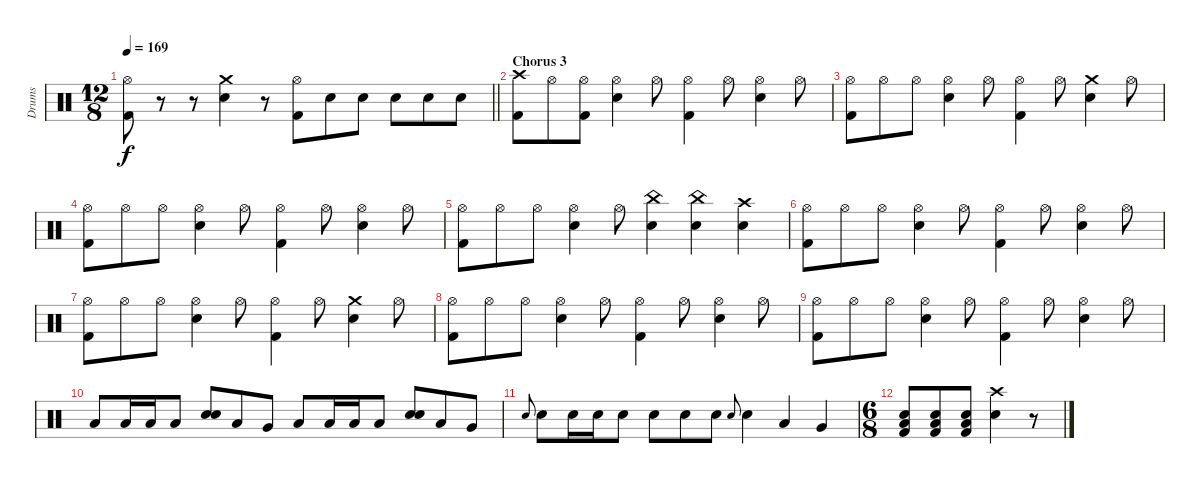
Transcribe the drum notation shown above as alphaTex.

\track ("Drums" "Drums") {instrument percussion}
\staff {score}
\articulation defaults
\ts (12 8)
\tempo 169
\clef neutral
\barLineRight lightlight
\ks c
("Kick (hit) 2" "Hi-Hat (open)").8{dy f} r.8 r.8 ("Snare (hit) 2" "Crash medium (hit)").4 r.8 ("Kick (hit) 2" "Hi-Hat (open)").8 "Snare (hit) 2".8 "Snare (hit) 2".8 "Snare (hit) 2".8 "Snare (hit) 2".8 "Snare (hit) 2".8 |
\section ("" "Chorus 3")
("Kick (hit) 2" "Crash high (hit)").8 "Hi-Hat (open)".8 ("Kick (hit) 2" "Hi-Hat (open)").8 ("Snare (hit) 2" "Hi-Hat (open)").4 "Hi-Hat (open)".8 ("Kick (hit) 2" "Hi-Hat (open)").4 "Hi-Hat (open)".8 ("Snare (hit) 2" "Hi-Hat (open)").4 "Hi-Hat (open)".8 |
("Kick (hit) 2" "Hi-Hat (open)").8 "Hi-Hat (open)".8 "Hi-Hat (open)".8 ("Snare (hit) 2" "Hi-Hat (open)").4 "Hi-Hat (open)".8 ("Kick (hit) 2" "Hi-Hat (open)").4 "Hi-Hat (open)".8 ("Snare (hit) 2" "Crash medium (hit)").4 "Hi-Hat (open)".8 |
("Kick (hit) 2" "Hi-Hat (open)").8 "Hi-Hat (open)".8 "Hi-Hat (open)".8 ("Snare (hit) 2" "Hi-Hat (open)").4 "Hi-Hat (open)".8 ("Kick (hit) 2" "Hi-Hat (open)").4 "Hi-Hat (open)".8 ("Snare (hit) 2" "Hi-Hat (open)").4 "Hi-Hat (open)".8 |
("Kick (hit) 2" "Hi-Hat (open)").8 "Hi-Hat (open)".8 "Hi-Hat (open)".8 ("Snare (hit) 2" "Hi-Hat (open)").4 "Hi-Hat (open)".8 ("Snare (hit) 2" "China (hit)").4 ("Snare (hit) 2" "China (hit)").4 ("Snare (hit) 2" "Crash high (hit)").4 |
("Kick (hit) 2" "Hi-Hat (open)").8 "Hi-Hat (open)".8 "Hi-Hat (open)".8 ("Snare (hit) 2" "Hi-Hat (open)").4 "Hi-Hat (open)".8 ("Kick (hit) 2" "Hi-Hat (open)").4 "Hi-Hat (open)".8 ("Snare (hit) 2" "Hi-Hat (open)").4 "Hi-Hat (open)".8 |
("Kick (hit) 2" "Hi-Hat (open)").8 "Hi-Hat (open)".8 "Hi-Hat (open)".8 ("Snare (hit) 2" "Hi-Hat (open)").4 "Hi-Hat (open)".8 ("Kick (hit) 2" "Hi-Hat (open)").4 "Hi-Hat (open)".8 ("Snare (hit) 2" "Crash medium (hit)").4 "Hi-Hat (open)".8 |
("Kick (hit) 2" "Hi-Hat (open)").8 "Hi-Hat (open)".8 "Hi-Hat (open)".8 ("Snare (hit) 2" "Hi-Hat (open)").4 "Hi-Hat (open)".8 ("Kick (hit) 2" "Hi-Hat (open)").4 "Hi-Hat (open)".8 ("Snare (hit) 2" "Hi-Hat (open)").4 "Hi-Hat (open)".8 |
("Kick (hit) 2" "Hi-Hat (open)").8 "Hi-Hat (open)".8 "Hi-Hat (open)".8 ("Snare (hit) 2" "Hi-Hat (open)").4 "Hi-Hat (open)".8 ("Kick (hit) 2" "Hi-Hat (open)").4 "Hi-Hat (open)".8 ("Snare (hit) 2" "Hi-Hat (open)").4 "Hi-Hat (open)".8 |
"Low Tom (hit)".8 "Low Tom (hit)".16 "Low Tom (hit)".16 "Low Tom (hit)".8 ("Snare (hit) 2" "Snare (hit) 2").8 "Low Tom (hit)".8 "Very Low Tom (hit)".8 "Low Tom (hit)".8 "Low Tom (hit)".16 "Low Tom (hit)".16 "Low Tom (hit)".8 ("Snare (hit) 2" "Snare (hit) 2").8 "Low Tom (hit)".8 "Very Low Tom (hit)".8 |
"Snare (hit) 2".8{gr onbeat} "Snare (hit) 2".8 "Snare (hit) 2".16 "Snare (hit) 2".16 "Snare (hit) 2".8 "Snare (hit) 2".8 "Snare (hit) 2".8 "Snare (hit) 2".8 "Snare (hit) 2".8{gr onbeat} "Snare (hit) 2".4 "Low Tom (hit)".4 "Very Low Tom (hit)".4 |
\ts (6 8)
("Kick (hit) 2" "Snare (hit) 2" "Low Tom (hit)").8 ("Kick (hit) 2" "Snare (hit) 2" "Low Tom (hit)").8 ("Kick (hit) 2" "Snare (hit) 2" "Low Tom (hit)").8 ("Snare (hit) 2" "Crash high (hit)").4 r.8
